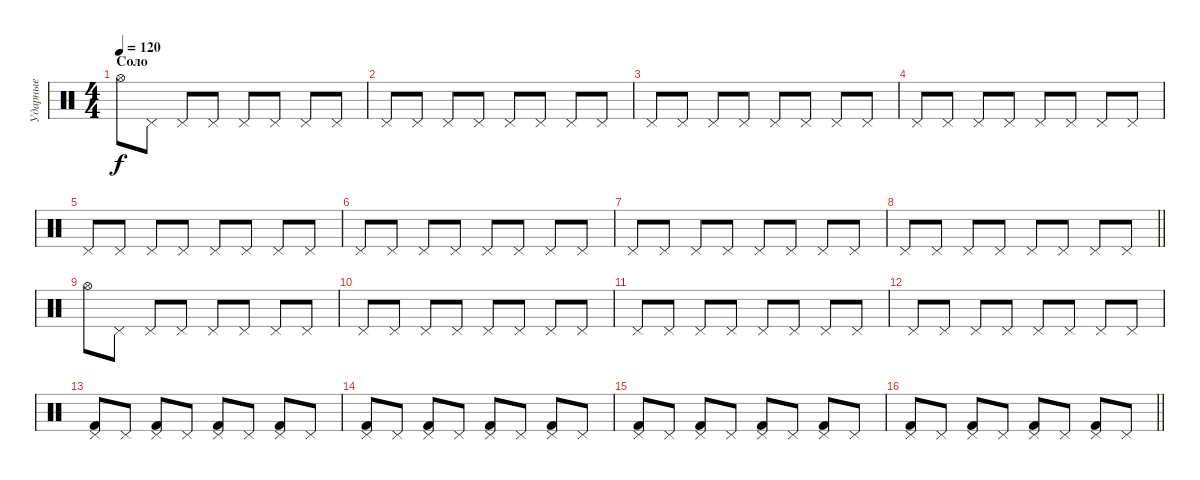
\track ("Ударные" "Ударные") {instrument percussion}
\staff {score}
\articulation defaults
\ts (4 4)
\section ("" "Соло")
\tempo 120
\clef neutral
\ks c "Hi-Hat (open)".8{dy f} "Pedal Hi-Hat (hit)".8 "Pedal Hi-Hat (hit)".8 "Pedal Hi-Hat (hit)".8 "Pedal Hi-Hat (hit)".8 "Pedal Hi-Hat (hit)".8 "Pedal Hi-Hat (hit)".8 "Pedal Hi-Hat (hit)".8
|
"Pedal Hi-Hat (hit)".8 "Pedal Hi-Hat (hit)".8 "Pedal Hi-Hat (hit)".8 "Pedal Hi-Hat (hit)".8 "Pedal Hi-Hat (hit)".8 "Pedal Hi-Hat (hit)".8 "Pedal Hi-Hat (hit)".8 "Pedal Hi-Hat (hit)".8 |
"Pedal Hi-Hat (hit)".8 "Pedal Hi-Hat (hit)".8 "Pedal Hi-Hat (hit)".8 "Pedal Hi-Hat (hit)".8 "Pedal Hi-Hat (hit)".8 "Pedal Hi-Hat (hit)".8 "Pedal Hi-Hat (hit)".8 "Pedal Hi-Hat (hit)".8 |
"Pedal Hi-Hat (hit)".8 "Pedal Hi-Hat (hit)".8 "Pedal Hi-Hat (hit)".8 "Pedal Hi-Hat (hit)".8 "Pedal Hi-Hat (hit)".8 "Pedal Hi-Hat (hit)".8 "Pedal Hi-Hat (hit)".8 "Pedal Hi-Hat (hit)".8 |
"Pedal Hi-Hat (hit)".8 "Pedal Hi-Hat (hit)".8 "Pedal Hi-Hat (hit)".8 "Pedal Hi-Hat (hit)".8 "Pedal Hi-Hat (hit)".8 "Pedal Hi-Hat (hit)".8 "Pedal Hi-Hat (hit)".8 "Pedal Hi-Hat (hit)".8 |
"Pedal Hi-Hat (hit)".8 "Pedal Hi-Hat (hit)".8 "Pedal Hi-Hat (hit)".8 "Pedal Hi-Hat (hit)".8 "Pedal Hi-Hat (hit)".8 "Pedal Hi-Hat (hit)".8 "Pedal Hi-Hat (hit)".8 "Pedal Hi-Hat (hit)".8 |
"Pedal Hi-Hat (hit)".8 "Pedal Hi-Hat (hit)".8 "Pedal Hi-Hat (hit)".8 "Pedal Hi-Hat (hit)".8 "Pedal Hi-Hat (hit)".8 "Pedal Hi-Hat (hit)".8 "Pedal Hi-Hat (hit)".8 "Pedal Hi-Hat (hit)".8 |
\barLineRight lightlight "Pedal Hi-Hat (hit)".8 "Pedal Hi-Hat (hit)".8 "Pedal Hi-Hat (hit)".8 "Pedal Hi-Hat (hit)".8 "Pedal Hi-Hat (hit)".8 "Pedal Hi-Hat (hit)".8 "Pedal Hi-Hat (hit)".8 "Pedal Hi-Hat (hit)".8
|
\section ("" "")
"Hi-Hat (open)".8 "Pedal Hi-Hat (hit)".8 "Pedal Hi-Hat (hit)".8 "Pedal Hi-Hat (hit)".8 "Pedal Hi-Hat (hit)".8 "Pedal Hi-Hat (hit)".8 "Pedal Hi-Hat (hit)".8 "Pedal Hi-Hat (hit)".8 |
"Pedal Hi-Hat (hit)".8 "Pedal Hi-Hat (hit)".8 "Pedal Hi-Hat (hit)".8 "Pedal Hi-Hat (hit)".8 "Pedal Hi-Hat (hit)".8 "Pedal Hi-Hat (hit)".8 "Pedal Hi-Hat (hit)".8 "Pedal Hi-Hat (hit)".8 |
"Pedal Hi-Hat (hit)".8 "Pedal Hi-Hat (hit)".8 "Pedal Hi-Hat (hit)".8 "Pedal Hi-Hat (hit)".8 "Pedal Hi-Hat (hit)".8 "Pedal Hi-Hat (hit)".8 "Pedal Hi-Hat (hit)".8 "Pedal Hi-Hat (hit)".8 |
"Pedal Hi-Hat (hit)".8 "Pedal Hi-Hat (hit)".8 "Pedal Hi-Hat (hit)".8 "Pedal Hi-Hat (hit)".8 "Pedal Hi-Hat (hit)".8 "Pedal Hi-Hat (hit)".8 "Pedal Hi-Hat (hit)".8 "Pedal Hi-Hat (hit)".8 |
("Kick (hit) 2" "Pedal Hi-Hat (hit)").8 "Pedal Hi-Hat (hit)".8 ("Kick (hit) 2" "Pedal Hi-Hat (hit)").8 "Pedal Hi-Hat (hit)".8 ("Kick (hit) 2" "Pedal Hi-Hat (hit)").8 "Pedal Hi-Hat (hit)".8 ("Kick (hit) 2" "Pedal Hi-Hat (hit)").8 "Pedal Hi-Hat (hit)".8 |
("Kick (hit) 2" "Pedal Hi-Hat (hit)").8 "Pedal Hi-Hat (hit)".8 ("Kick (hit) 2" "Pedal Hi-Hat (hit)").8 "Pedal Hi-Hat (hit)".8 ("Kick (hit) 2" "Pedal Hi-Hat (hit)").8 "Pedal Hi-Hat (hit)".8 ("Kick (hit) 2" "Pedal Hi-Hat (hit)").8 "Pedal Hi-Hat (hit)".8 |
("Kick (hit) 2" "Pedal Hi-Hat (hit)").8 "Pedal Hi-Hat (hit)".8 ("Kick (hit) 2" "Pedal Hi-Hat (hit)").8 "Pedal Hi-Hat (hit)".8 ("Kick (hit) 2" "Pedal Hi-Hat (hit)").8 "Pedal Hi-Hat (hit)".8 ("Kick (hit) 2" "Pedal Hi-Hat (hit)").8 "Pedal Hi-Hat (hit)".8 |
\barLineRight lightlight
("Kick (hit) 2" "Pedal Hi-Hat (hit)").8 "Pedal Hi-Hat (hit)".8 ("Kick (hit) 2" "Pedal Hi-Hat (hit)").8 "Pedal Hi-Hat (hit)".8 ("Kick (hit) 2" "Pedal Hi-Hat (hit)").8 "Pedal Hi-Hat (hit)".8 ("Kick (hit) 2" "Pedal Hi-Hat (hit)").8 "Pedal Hi-Hat (hit)".8
